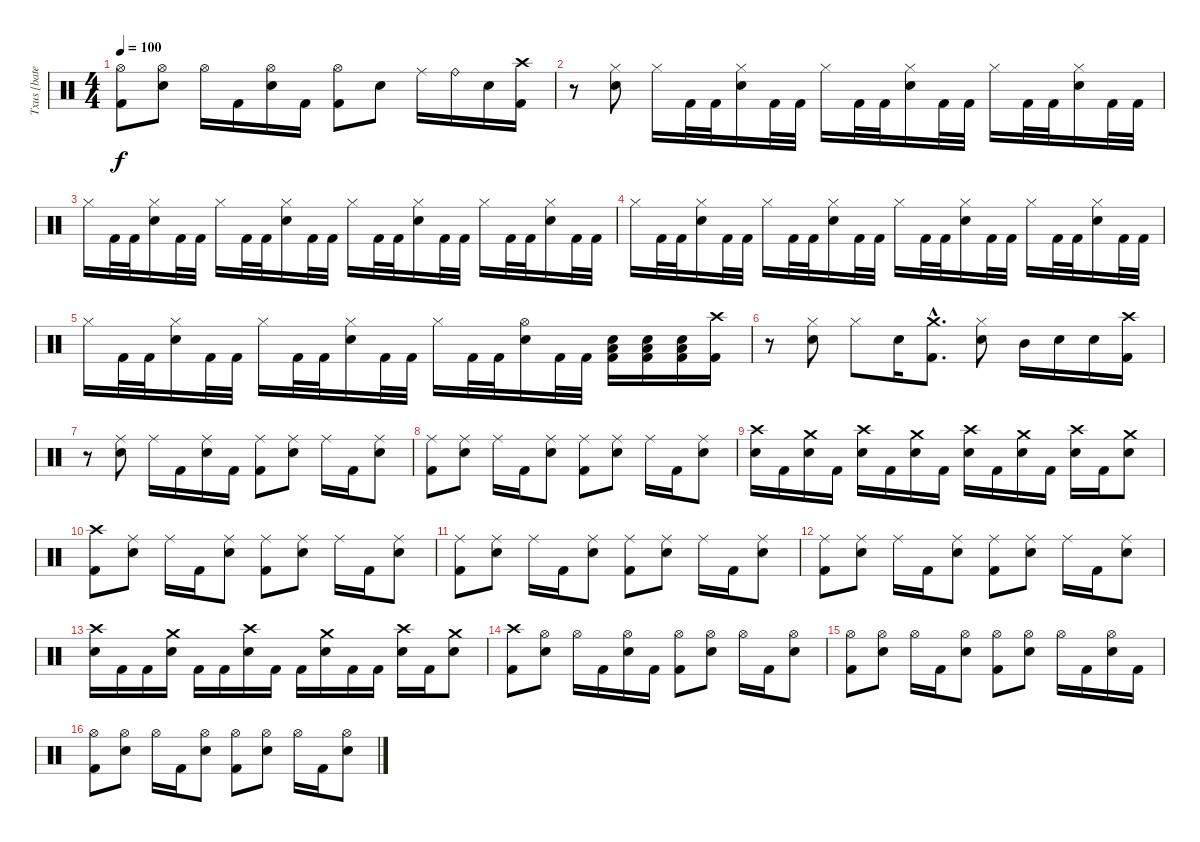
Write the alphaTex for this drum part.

\track ("Txus [bateria]" "Txus [bate") {instrument percussion}
\staff {score}
\articulation defaults
\ts (4 4)
\tempo 100
\clef neutral
\ks c
("Hi-Hat (open)" "Kick (hit) 2").8{dy f} ("Hi-Hat (open)" "Snare (hit) 2").8 "Hi-Hat (open)".16 "Kick (hit) 2".16 ("Hi-Hat (open)" "Snare (hit) 2").16 "Kick (hit) 2".16 ("Hi-Hat (open)" "Kick (hit) 2").8 "Snare (hit) 2".8 "Ride (middle)".16 "Ride (bell)".16 "Snare (hit) 2".16 ("Crash high (hit)" "Kick (hit) 2").16 |
r.8 ("Hi-Hat (closed)" "Snare (hit) 2").8 "Hi-Hat (closed)".16 "Kick (hit) 2".32 "Kick (hit) 2".32 ("Hi-Hat (closed)" "Snare (hit) 2").16 "Kick (hit) 2".32 "Kick (hit) 2".32 "Hi-Hat (closed)".16 "Kick (hit) 2".32 "Kick (hit) 2".32 ("Hi-Hat (closed)" "Snare (hit) 2").16 "Kick (hit) 2".32 "Kick (hit) 2".32 "Hi-Hat (closed)".16 "Kick (hit) 2".32 "Kick (hit) 2".32 ("Hi-Hat (closed)" "Snare (hit) 2").16 "Kick (hit) 2".32 "Kick (hit) 2".32 |
"Hi-Hat (closed)".16 "Kick (hit) 2".32 "Kick (hit) 2".32 ("Hi-Hat (closed)" "Snare (hit) 2").16 "Kick (hit) 2".32 "Kick (hit) 2".32 "Hi-Hat (closed)".16 "Kick (hit) 2".32 "Kick (hit) 2".32 ("Hi-Hat (closed)" "Snare (hit) 2").16 "Kick (hit) 2".32 "Kick (hit) 2".32 "Hi-Hat (closed)".16 "Kick (hit) 2".32 "Kick (hit) 2".32 ("Hi-Hat (closed)" "Snare (hit) 2").16 "Kick (hit) 2".32 "Kick (hit) 2".32 "Hi-Hat (closed)".16 "Kick (hit) 2".32 "Kick (hit) 2".32 ("Hi-Hat (closed)" "Snare (hit) 2").16 "Kick (hit) 2".32 "Kick (hit) 2".32 |
"Hi-Hat (closed)".16 "Kick (hit) 2".32 "Kick (hit) 2".32 ("Hi-Hat (closed)" "Snare (hit) 2").16 "Kick (hit) 2".32 "Kick (hit) 2".32 "Hi-Hat (closed)".16 "Kick (hit) 2".32 "Kick (hit) 2".32 ("Hi-Hat (closed)" "Snare (hit) 2").16 "Kick (hit) 2".32 "Kick (hit) 2".32 "Hi-Hat (closed)".16 "Kick (hit) 2".32 "Kick (hit) 2".32 ("Hi-Hat (closed)" "Snare (hit) 2").16 "Kick (hit) 2".32 "Kick (hit) 2".32 "Hi-Hat (closed)".16 "Kick (hit) 2".32 "Kick (hit) 2".32 ("Hi-Hat (closed)" "Snare (hit) 2").16 "Kick (hit) 2".32 "Kick (hit) 2".32 |
"Hi-Hat (closed)".16 "Kick (hit) 2".32 "Kick (hit) 2".32 ("Hi-Hat (closed)" "Snare (hit) 2").16 "Kick (hit) 2".32 "Kick (hit) 2".32 "Hi-Hat (closed)".16 "Kick (hit) 2".32 "Kick (hit) 2".32 ("Hi-Hat (closed)" "Snare (hit) 2").16 "Kick (hit) 2".32 "Kick (hit) 2".32 "Hi-Hat (closed)".16 "Kick (hit) 2".32 "Kick (hit) 2".32 ("Hi-Hat (open)" "Snare (hit) 2").16 "Kick (hit) 2".32 "Kick (hit) 2".32 ("Low Floor Tom (hit)" "Snare (hit) 2" "Kick (hit) 2").16 ("Low Floor Tom (hit)" "Snare (hit) 2" "Kick (hit) 2").16 ("Low Floor Tom (hit)" "Snare (hit) 2" "Kick (hit) 2").16 ("Crash high (hit)" "Kick (hit) 2").16 |
r.8 ("Hi-Hat (closed)" "Snare (hit) 2").8 "Hi-Hat (closed)".8 "Snare (hit) 2".16 ("Crash medium (hit)"{hac} "Kick (hit) 2"{hac}).8{d} ("Hi-Hat (closed)" "Snare (hit) 2").8 "Mid Tom (hit)".16 "Snare (hit) 2".16 "Snare (hit) 2".16 ("Crash high (hit)" "Kick (hit) 2").16 |
r.8 ("Ride (middle)" "Snare (hit) 2").8 "Ride (middle)".16 "Kick (hit) 2".16 ("Ride (middle)" "Snare (hit) 2").16 "Kick (hit) 2".16 ("Ride (middle)" "Kick (hit) 2").8 ("Ride (middle)" "Snare (hit) 2").8 "Ride (middle)".16 "Kick (hit) 2".16 ("Ride (middle)" "Snare (hit) 2").8 |
("Ride (middle)" "Kick (hit) 2").8 ("Ride (middle)" "Snare (hit) 2").8 "Ride (middle)".16 "Kick (hit) 2".16 ("Ride (middle)" "Snare (hit) 2").8 ("Ride (middle)" "Kick (hit) 2").8 ("Ride (middle)" "Snare (hit) 2").8 "Ride (middle)".16 "Kick (hit) 2".16 ("Ride (middle)" "Snare (hit) 2").8 |
("Crash high (hit)" "Snare (hit) 2").16 "Kick (hit) 2".16 ("Crash medium (hit)" "Snare (hit) 2").16 "Kick (hit) 2".16 ("Crash high (hit)" "Snare (hit) 2").16 "Kick (hit) 2".16 ("Crash medium (hit)" "Snare (hit) 2").16 "Kick (hit) 2".16 ("Crash high (hit)" "Snare (hit) 2").16 "Kick (hit) 2".16 ("Crash medium (hit)" "Snare (hit) 2").16 "Kick (hit) 2".16 ("Crash high (hit)" "Snare (hit) 2").16 "Kick (hit) 2".16 ("Crash medium (hit)" "Snare (hit) 2").8 |
("Crash high (hit)" "Kick (hit) 2").8 ("Ride (middle)" "Snare (hit) 2").8 "Ride (middle)".16 "Kick (hit) 2".16 ("Ride (middle)" "Snare (hit) 2").8 ("Ride (middle)" "Kick (hit) 2").8 ("Ride (middle)" "Snare (hit) 2").8 "Ride (middle)".16 "Kick (hit) 2".16 ("Ride (middle)" "Snare (hit) 2").8 |
("Ride (middle)" "Kick (hit) 2").8 ("Ride (middle)" "Snare (hit) 2").8 "Ride (middle)".16 "Kick (hit) 2".16 ("Ride (middle)" "Snare (hit) 2").8 ("Ride (middle)" "Kick (hit) 2").8 ("Ride (middle)" "Snare (hit) 2").8 "Ride (middle)".16 "Kick (hit) 2".16 ("Ride (middle)" "Snare (hit) 2").8 |
("Ride (middle)" "Kick (hit) 2").8 ("Ride (middle)" "Snare (hit) 2").8 "Ride (middle)".16 "Kick (hit) 2".16 ("Ride (middle)" "Snare (hit) 2").8 ("Ride (middle)" "Kick (hit) 2").8 ("Ride (middle)" "Snare (hit) 2").8 "Ride (middle)".16 "Kick (hit) 2".16 ("Ride (middle)" "Snare (hit) 2").8 |
("Crash high (hit)" "Snare (hit) 2").16 "Kick (hit) 2".16 "Kick (hit) 2".16 ("Crash medium (hit)" "Snare (hit) 2").16 "Kick (hit) 2".16 "Kick (hit) 2".16 ("Crash high (hit)" "Snare (hit) 2").16 "Kick (hit) 2".16 "Kick (hit) 2".16 ("Crash medium (hit)" "Snare (hit) 2").16 "Kick (hit) 2".16 "Kick (hit) 2".16 ("Crash high (hit)" "Snare (hit) 2").16 "Kick (hit) 2".16 ("Crash medium (hit)" "Snare (hit) 2").8 |
("Crash high (hit)" "Kick (hit) 2").8 ("Hi-Hat (open)" "Snare (hit) 2").8 "Hi-Hat (open)".16 "Kick (hit) 2".16 ("Hi-Hat (open)" "Snare (hit) 2").16 "Kick (hit) 2".16 ("Hi-Hat (open)" "Kick (hit) 2").8 ("Hi-Hat (open)" "Snare (hit) 2").8 "Hi-Hat (open)".16 "Kick (hit) 2".16 ("Hi-Hat (open)" "Snare (hit) 2").8 |
("Hi-Hat (open)" "Kick (hit) 2").8 ("Hi-Hat (open)" "Snare (hit) 2").8 "Hi-Hat (open)".16 "Kick (hit) 2".16 ("Hi-Hat (open)" "Snare (hit) 2").8 ("Hi-Hat (open)" "Kick (hit) 2").8 ("Hi-Hat (open)" "Snare (hit) 2").8 "Hi-Hat (open)".16 "Kick (hit) 2".16 ("Hi-Hat (open)" "Snare (hit) 2").16 "Kick (hit) 2".16 |
("Hi-Hat (open)" "Kick (hit) 2").8 ("Hi-Hat (open)" "Snare (hit) 2").8 "Hi-Hat (open)".16 "Kick (hit) 2".16 ("Hi-Hat (open)" "Snare (hit) 2").8 ("Hi-Hat (open)" "Kick (hit) 2").8 ("Hi-Hat (open)" "Snare (hit) 2").8 "Hi-Hat (open)".16 "Kick (hit) 2".16 ("Hi-Hat (open)" "Snare (hit) 2").8
